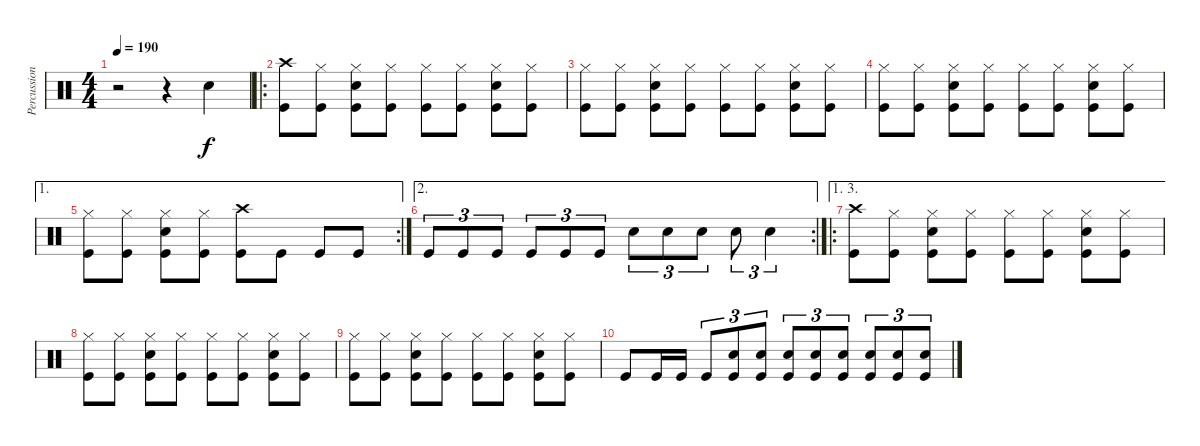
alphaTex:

\track ("Percussions" "Percussion") {instrument percussion}
\staff {score}
\articulation defaults
\ts (4 4)
\tempo 190
\clef neutral
\ks c
r.2{dy f} r.4 "Snare (hit) 2".4 |
\ro
("Crash high (hit)" "Kick (hit)").8 ("Hi-Hat (closed)" "Kick (hit)").8 ("Hi-Hat (closed)" "Snare (hit) 2" "Kick (hit)").8 ("Hi-Hat (closed)" "Kick (hit)").8 ("Hi-Hat (closed)" "Kick (hit)").8 ("Hi-Hat (closed)" "Kick (hit)").8 ("Hi-Hat (closed)" "Snare (hit) 2" "Kick (hit)").8 ("Hi-Hat (closed)" "Kick (hit)").8 |
("Hi-Hat (closed)" "Kick (hit)").8 ("Hi-Hat (closed)" "Kick (hit)").8 ("Hi-Hat (closed)" "Snare (hit) 2" "Kick (hit)").8 ("Hi-Hat (closed)" "Kick (hit)").8 ("Hi-Hat (closed)" "Kick (hit)").8 ("Hi-Hat (closed)" "Kick (hit)").8 ("Hi-Hat (closed)" "Snare (hit) 2" "Kick (hit)").8 ("Hi-Hat (closed)" "Kick (hit)").8 |
("Hi-Hat (closed)" "Kick (hit)").8 ("Hi-Hat (closed)" "Kick (hit)").8 ("Hi-Hat (closed)" "Snare (hit) 2" "Kick (hit)").8 ("Hi-Hat (closed)" "Kick (hit)").8 ("Hi-Hat (closed)" "Kick (hit)").8 ("Hi-Hat (closed)" "Kick (hit)").8 ("Hi-Hat (closed)" "Snare (hit) 2" "Kick (hit)").8 ("Hi-Hat (closed)" "Kick (hit)").8 |
\ae 1
\rc 2
("Hi-Hat (closed)" "Kick (hit)").8 ("Hi-Hat (closed)" "Kick (hit)").8 ("Hi-Hat (closed)" "Snare (hit) 2" "Kick (hit)").8 ("Hi-Hat (closed)" "Kick (hit)").8 ("Crash high (hit)" "Kick (hit)").8 "Kick (hit)".8 "Kick (hit)".8 "Kick (hit)".8 |
\ae 2
\rc 2 "Kick (hit)".8{tu (3 2)} "Kick (hit)".8{tu (3 2)} "Kick (hit)".8{tu (3 2)} "Kick (hit)".8{tu (3 2)} "Kick (hit)".8{tu (3 2)} "Kick (hit)".8{tu (3 2)} "Snare (hit) 2".8{tu (3 2)} "Snare (hit) 2".8{tu (3 2)} "Snare (hit) 2".8{tu (3 2)} "Snare (hit) 2".8{tu (3 2)} "Snare (hit) 2".4{tu (3 2)}
|
\ae (1 3)
\ro
("Crash high (hit)" "Kick (hit)").8 ("Hi-Hat (closed)" "Kick (hit)").8 ("Hi-Hat (closed)" "Snare (hit) 2" "Kick (hit)").8 ("Hi-Hat (closed)" "Kick (hit)").8 ("Hi-Hat (closed)" "Kick (hit)").8 ("Hi-Hat (closed)" "Kick (hit)").8 ("Hi-Hat (closed)" "Snare (hit) 2" "Kick (hit)").8 ("Hi-Hat (closed)" "Kick (hit)").8 |
("Hi-Hat (closed)" "Kick (hit)").8 ("Hi-Hat (closed)" "Kick (hit)").8 ("Hi-Hat (closed)" "Snare (hit) 2" "Kick (hit)").8 ("Hi-Hat (closed)" "Kick (hit)").8 ("Hi-Hat (closed)" "Kick (hit)").8 ("Hi-Hat (closed)" "Kick (hit)").8 ("Hi-Hat (closed)" "Snare (hit) 2" "Kick (hit)").8 ("Hi-Hat (closed)" "Kick (hit)").8 |
("Hi-Hat (closed)" "Kick (hit)").8 ("Hi-Hat (closed)" "Kick (hit)").8 ("Hi-Hat (closed)" "Snare (hit) 2" "Kick (hit)").8 ("Hi-Hat (closed)" "Kick (hit)").8 ("Hi-Hat (closed)" "Kick (hit)").8 ("Hi-Hat (closed)" "Kick (hit)").8 ("Hi-Hat (closed)" "Snare (hit) 2" "Kick (hit)").8 ("Hi-Hat (closed)" "Kick (hit)").8 |
"Kick (hit)".8 "Kick (hit)".16 "Kick (hit)".16 "Kick (hit)".8{tu (3 2)} ("Snare (hit) 2" "Kick (hit)").8{tu (3 2)} ("Snare (hit) 2" "Kick (hit)").8{tu (3 2)} ("Snare (hit) 2" "Kick (hit)").8{tu (3 2)} ("Snare (hit) 2" "Kick (hit)").8{tu (3 2)} ("Snare (hit) 2" "Kick (hit)").8{tu (3 2)} ("Snare (hit) 2" "Kick (hit)").8{tu (3 2)} ("Snare (hit) 2" "Kick (hit)").8{tu (3 2)} ("Snare (hit) 2" "Kick (hit)").8{tu (3 2)}
